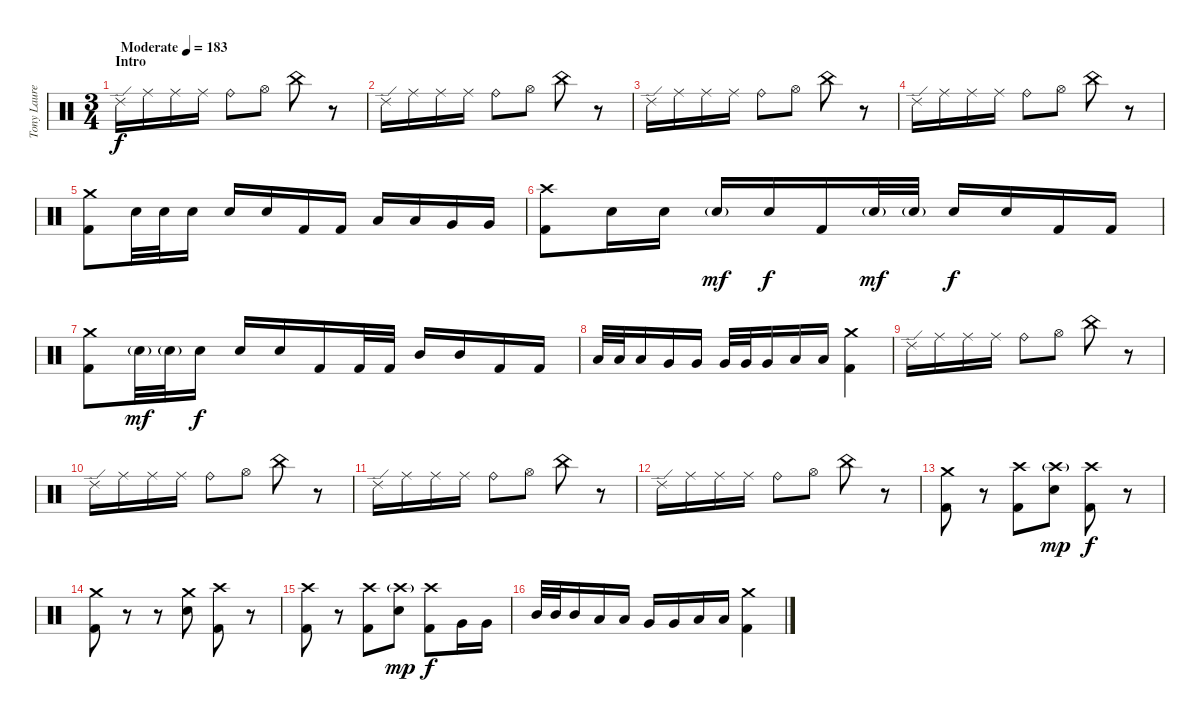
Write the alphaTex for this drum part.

\track ("Tony Laureano" "Tony Laure") {instrument percussion}
\staff {score}
\articulation defaults
\ts (3 4)
\section ("" "Intro")
\tempo (183 "Moderate")
\clef neutral
\ks c "Ride (edge) 2".16{dy f} "Ride (middle)".16 "Ride (middle)".16 "Ride (middle)".16 "Ride (bell)".8 "Hi-Hat (open)".8 "China (hit)".8
r.8 |
"Ride (edge) 2".16 "Ride (middle)".16 "Ride (middle)".16 "Ride (middle)".16 "Ride (bell)".8 "Hi-Hat (open)".8 "China (hit)".8 r.8 |
"Ride (edge) 2".16 "Ride (middle)".16 "Ride (middle)".16 "Ride (middle)".16 "Ride (bell)".8 "Hi-Hat (open)".8 "China (hit)".8 r.8 |
"Ride (edge) 2".16 "Ride (middle)".16 "Ride (middle)".16 "Ride (middle)".16 "Ride (bell)".8 "Hi-Hat (open)".8 "China (hit)".8 r.8 |
("Crash medium (hit)" "Kick (hit) 2").8 "Electric Snare (hit)".32 "Electric Snare (hit)".32 "Electric Snare (hit)".16 "Electric Snare (hit)".16 "Electric Snare (hit)".16 "Kick (hit) 2".16 "Kick (hit) 2".16 "Low Tom (hit)".16 "Low Tom (hit)".16 "Very Low Tom (hit)".16 "Very Low Tom (hit)".16 |
("Crash high (hit)" "Kick (hit) 2").8 "Electric Snare (hit)".16 "Electric Snare (hit)".16 "Electric Snare (hit)"{g}.16{dy mf} "Electric Snare (hit)".16{dy f} "Kick (hit) 2".16 "Electric Snare (hit)"{g}.32{dy mf} "Electric Snare (hit)"{g}.32 "Electric Snare (hit)".16{dy f} "Electric Snare (hit)".16 "Kick (hit) 2".16 "Kick (hit) 2".16 |
("Crash medium (hit)" "Kick (hit) 2").8 "Electric Snare (hit)"{g}.32{dy mf} "Electric Snare (hit)"{g}.32 "Electric Snare (hit)".16{dy f} "Electric Snare (hit)".16 "Electric Snare (hit)".16 "Kick (hit) 2".16 "Kick (hit) 2".32 "Kick (hit) 2".32 "Mid Tom (hit)".16 "Mid Tom (hit)".16 "Kick (hit) 2".16 "Kick (hit) 2".16 |
"Low Tom (hit)".32 "Low Tom (hit)".32 "Low Tom (hit)".16 "Very Low Tom (hit)".16 "Very Low Tom (hit)".16 "Very Low Tom (hit)".32 "Very Low Tom (hit)".32 "Very Low Tom (hit)".16 "Low Floor Tom (hit)".16 "Low Floor Tom (hit)".16 ("Crash medium (hit)" "Kick (hit) 2").4 |
"Ride (edge) 2".16 "Ride (middle)".16 "Ride (middle)".16 "Ride (middle)".16 "Ride (bell)".8 "Hi-Hat (open)".8 "China (hit)".8 r.8 |
"Ride (edge) 2".16 "Ride (middle)".16 "Ride (middle)".16 "Ride (middle)".16 "Ride (bell)".8 "Hi-Hat (open)".8 "China (hit)".8 r.8 |
"Ride (edge) 2".16 "Ride (middle)".16 "Ride (middle)".16 "Ride (middle)".16 "Ride (bell)".8 "Hi-Hat (open)".8 "China (hit)".8 r.8 |
"Ride (edge) 2".16 "Ride (middle)".16 "Ride (middle)".16 "Ride (middle)".16 "Ride (bell)".8 "Hi-Hat (open)".8 "China (hit)".8 r.8 |
("Crash medium (hit)" "Kick (hit) 2").8 r.8 ("Crash high (hit)" "Kick (hit) 2").8 ("Crash high (hit)"{g} "Electric Snare (hit)").8{dy mp} ("Crash high (hit)" "Kick (hit) 2").8{dy f} r.8 |
("Crash medium (hit)" "Kick (hit) 2").8 r.8 r.8 ("Crash medium (hit)" "Electric Snare (hit)").8 ("Crash high (hit)" "Kick (hit) 2").8 r.8 |
("Crash high (hit)" "Kick (hit) 2").8 r.8 ("Crash high (hit)" "Kick (hit) 2").8 ("Crash high (hit)"{g} "Electric Snare (hit)").8{dy mp} ("Crash high (hit)" "Kick (hit) 2").8{dy f} "Very Low Tom (hit)".16 "Very Low Tom (hit)".16 |
"Mid Tom (hit)".32 "Mid Tom (hit)".32 "Mid Tom (hit)".16 "Low Tom (hit)".16 "Low Tom (hit)".16 "Very Low Tom (hit)".16 "Very Low Tom (hit)".16 "Low Floor Tom (hit)".16 "Low Floor Tom (hit)".16 ("Crash medium (hit)" "Kick (hit) 2").4
